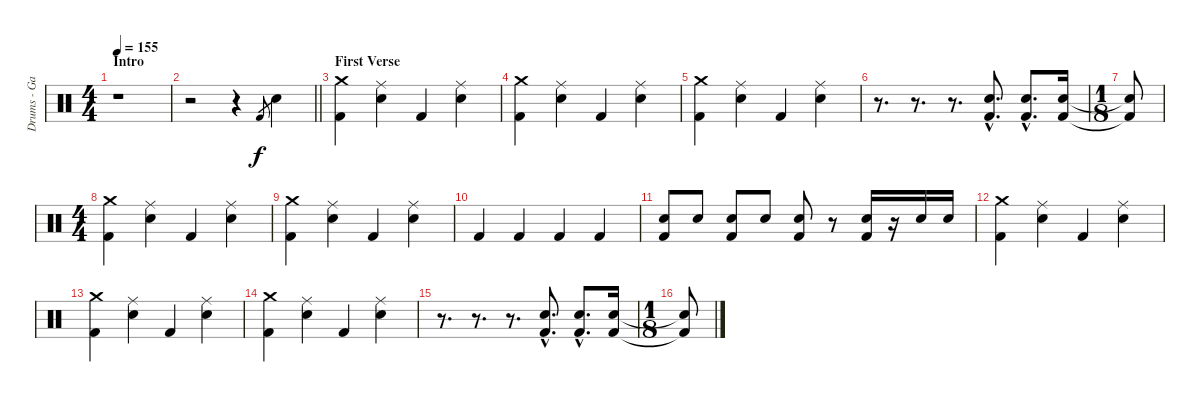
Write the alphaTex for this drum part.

\track ("Drums - Gary" "Drums - Ga") {instrument percussion}
\staff {score}
\articulation defaults
\ts (4 4)
\section ("" "Intro")
\tempo 155
\clef neutral
\ks c
r.1{dy f} |
\barLineRight lightlight
r.2 r.4 "Kick (hit) 2".8{gr} "Snare (hit) 2".4 |
\section ("" "First Verse")
("Crash medium (hit)" "Kick (hit) 2").4 ("Snare (hit) 2" "Ride (middle)").4 "Kick (hit) 2".4 ("Snare (hit) 2" "Ride (middle)").4 |
("Crash medium (hit)" "Kick (hit) 2").4 ("Snare (hit) 2" "Ride (middle)").4 "Kick (hit) 2".4 ("Snare (hit) 2" "Ride (middle)").4 |
("Crash medium (hit)" "Kick (hit) 2").4 ("Snare (hit) 2" "Ride (middle)").4 "Kick (hit) 2".4 ("Snare (hit) 2" "Ride (middle)").4 |
r.8{d} r.8{d} r.8{d} ("Snare (hit) 2"{hac} "Kick (hit) 2"{hac}).8{d} ("Snare (hit) 2"{hac} "Kick (hit) 2"{hac}).8{d} ("Snare (hit) 2" "Kick (hit) 2").16 |
\ts (1 8)
("Snare (hit) 2"{t} "Kick (hit) 2"{t}).8 |
\ts (4 4)
("Crash medium (hit)" "Kick (hit) 2").4 ("Snare (hit) 2" "Ride (middle)").4 "Kick (hit) 2".4 ("Snare (hit) 2" "Ride (middle)").4 |
("Crash medium (hit)" "Kick (hit) 2").4 ("Snare (hit) 2" "Ride (middle)").4 "Kick (hit) 2".4 ("Snare (hit) 2" "Ride (middle)").4 |
"Kick (hit) 2".4 "Kick (hit) 2".4 "Kick (hit) 2".4 "Kick (hit) 2".4 |
("Snare (hit) 2" "Kick (hit) 2").8 "Snare (hit) 2".8 ("Snare (hit) 2" "Kick (hit) 2").8 "Snare (hit) 2".8 ("Snare (hit) 2" "Kick (hit) 2").8 r.8 ("Snare (hit) 2" "Kick (hit) 2").16 r.16 "Snare (hit) 2".16 "Snare (hit) 2".16 |
("Crash medium (hit)" "Kick (hit) 2").4 ("Snare (hit) 2" "Ride (middle)").4 "Kick (hit) 2".4 ("Snare (hit) 2" "Ride (middle)").4 |
("Crash medium (hit)" "Kick (hit) 2").4 ("Snare (hit) 2" "Ride (middle)").4 "Kick (hit) 2".4 ("Snare (hit) 2" "Ride (middle)").4 |
("Crash medium (hit)" "Kick (hit) 2").4 ("Snare (hit) 2" "Ride (middle)").4 "Kick (hit) 2".4 ("Snare (hit) 2" "Ride (middle)").4 |
r.8{d} r.8{d} r.8{d} ("Snare (hit) 2"{hac} "Kick (hit) 2"{hac}).8{d} ("Snare (hit) 2"{hac} "Kick (hit) 2"{hac}).8{d} ("Snare (hit) 2" "Kick (hit) 2").16 |
\ts (1 8)
("Snare (hit) 2"{t} "Kick (hit) 2"{t}).8
